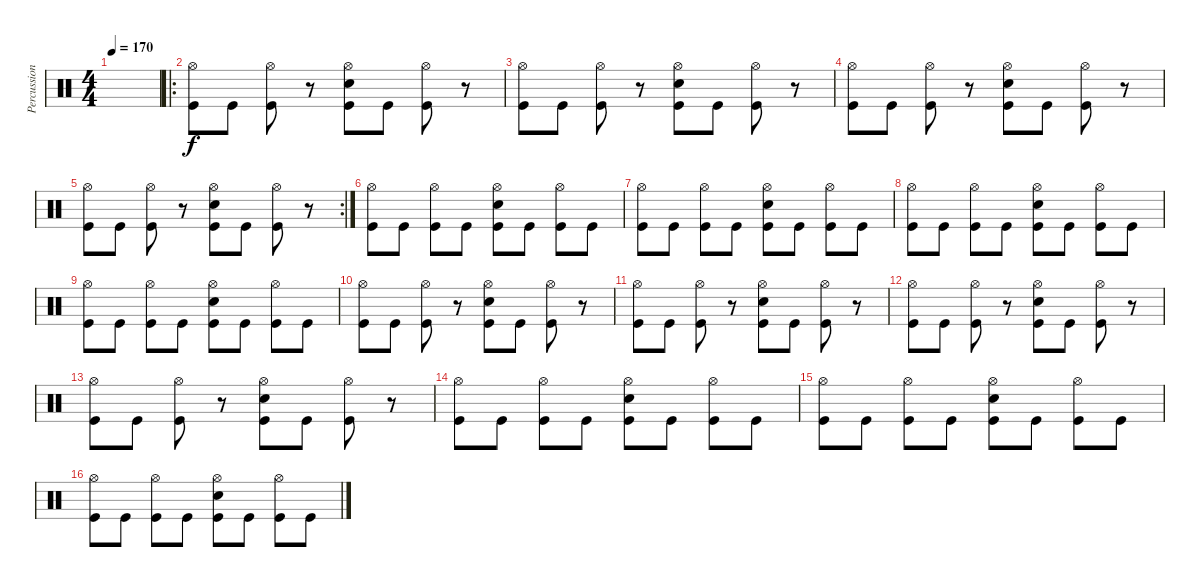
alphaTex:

\track ("Percussion" "Percussion") {instrument percussion}
\staff {score}
\articulation defaults
\ts (4 4)
\tempo 170
\clef neutral
\ks c
|
\ro
("Hi-Hat (open)" "Kick (hit)").8 "Kick (hit)".8 ("Hi-Hat (open)" "Kick (hit)").8 r.8 ("Hi-Hat (open)" "Snare (hit) 2" "Kick (hit)").8 "Kick (hit)".8 ("Hi-Hat (open)" "Kick (hit)").8 r.8 |
("Hi-Hat (open)" "Kick (hit)").8 "Kick (hit)".8 ("Hi-Hat (open)" "Kick (hit)").8 r.8 ("Hi-Hat (open)" "Snare (hit) 2" "Kick (hit)").8 "Kick (hit)".8 ("Hi-Hat (open)" "Kick (hit)").8 r.8 |
("Hi-Hat (open)" "Kick (hit)").8 "Kick (hit)".8 ("Hi-Hat (open)" "Kick (hit)").8 r.8 ("Hi-Hat (open)" "Snare (hit) 2" "Kick (hit)").8 "Kick (hit)".8 ("Hi-Hat (open)" "Kick (hit)").8 r.8 |
\rc 2
("Hi-Hat (open)" "Kick (hit)").8 "Kick (hit)".8 ("Hi-Hat (open)" "Kick (hit)").8 r.8 ("Hi-Hat (open)" "Snare (hit) 2" "Kick (hit)").8 "Kick (hit)".8 ("Hi-Hat (open)" "Kick (hit)").8 r.8 |
("Hi-Hat (open)" "Kick (hit)").8 "Kick (hit)".8 ("Hi-Hat (open)" "Kick (hit)").8 "Kick (hit)".8 ("Hi-Hat (open)" "Snare (hit) 2" "Kick (hit)").8 "Kick (hit)".8 ("Hi-Hat (open)" "Kick (hit)").8 "Kick (hit)".8 |
("Hi-Hat (open)" "Kick (hit)").8 "Kick (hit)".8 ("Hi-Hat (open)" "Kick (hit)").8 "Kick (hit)".8 ("Hi-Hat (open)" "Snare (hit) 2" "Kick (hit)").8 "Kick (hit)".8 ("Hi-Hat (open)" "Kick (hit)").8 "Kick (hit)".8 |
("Hi-Hat (open)" "Kick (hit)").8 "Kick (hit)".8 ("Hi-Hat (open)" "Kick (hit)").8 "Kick (hit)".8 ("Hi-Hat (open)" "Snare (hit) 2" "Kick (hit)").8 "Kick (hit)".8 ("Hi-Hat (open)" "Kick (hit)").8 "Kick (hit)".8 |
("Hi-Hat (open)" "Kick (hit)").8 "Kick (hit)".8 ("Hi-Hat (open)" "Kick (hit)").8 "Kick (hit)".8 ("Hi-Hat (open)" "Snare (hit) 2" "Kick (hit)").8 "Kick (hit)".8 ("Hi-Hat (open)" "Kick (hit)").8 "Kick (hit)".8 |
("Hi-Hat (open)" "Kick (hit)").8 "Kick (hit)".8 ("Hi-Hat (open)" "Kick (hit)").8 r.8 ("Hi-Hat (open)" "Snare (hit) 2" "Kick (hit)").8 "Kick (hit)".8 ("Hi-Hat (open)" "Kick (hit)").8 r.8 |
("Hi-Hat (open)" "Kick (hit)").8 "Kick (hit)".8 ("Hi-Hat (open)" "Kick (hit)").8 r.8 ("Hi-Hat (open)" "Snare (hit) 2" "Kick (hit)").8 "Kick (hit)".8 ("Hi-Hat (open)" "Kick (hit)").8 r.8 |
("Hi-Hat (open)" "Kick (hit)").8 "Kick (hit)".8 ("Hi-Hat (open)" "Kick (hit)").8 r.8 ("Hi-Hat (open)" "Snare (hit) 2" "Kick (hit)").8 "Kick (hit)".8 ("Hi-Hat (open)" "Kick (hit)").8 r.8 |
("Hi-Hat (open)" "Kick (hit)").8 "Kick (hit)".8 ("Hi-Hat (open)" "Kick (hit)").8 r.8 ("Hi-Hat (open)" "Snare (hit) 2" "Kick (hit)").8 "Kick (hit)".8 ("Hi-Hat (open)" "Kick (hit)").8 r.8 |
("Hi-Hat (open)" "Kick (hit)").8 "Kick (hit)".8 ("Hi-Hat (open)" "Kick (hit)").8 "Kick (hit)".8 ("Hi-Hat (open)" "Snare (hit) 2" "Kick (hit)").8 "Kick (hit)".8 ("Hi-Hat (open)" "Kick (hit)").8 "Kick (hit)".8 |
("Hi-Hat (open)" "Kick (hit)").8 "Kick (hit)".8 ("Hi-Hat (open)" "Kick (hit)").8 "Kick (hit)".8 ("Hi-Hat (open)" "Snare (hit) 2" "Kick (hit)").8 "Kick (hit)".8 ("Hi-Hat (open)" "Kick (hit)").8 "Kick (hit)".8 |
("Hi-Hat (open)" "Kick (hit)").8 "Kick (hit)".8 ("Hi-Hat (open)" "Kick (hit)").8 "Kick (hit)".8 ("Hi-Hat (open)" "Snare (hit) 2" "Kick (hit)").8 "Kick (hit)".8 ("Hi-Hat (open)" "Kick (hit)").8 "Kick (hit)".8
